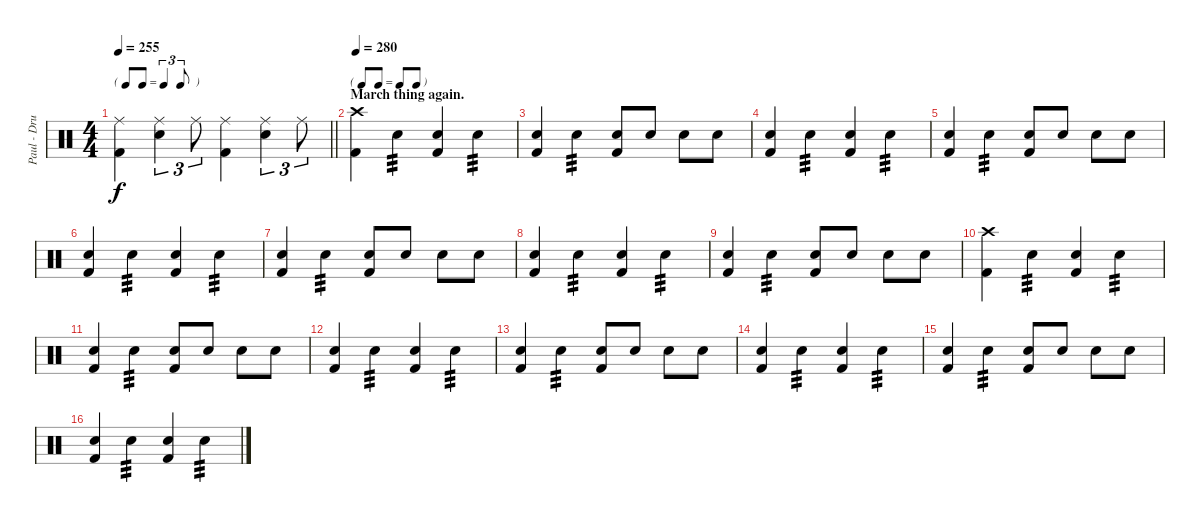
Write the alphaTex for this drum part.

\track ("Paul - Drums" "Paul - Dru") {instrument percussion}
\staff {score}
\articulation defaults
\ts (4 4)
\tf triplet8th
\tempo 255
\clef neutral
\barLineRight lightlight
\ks c
("Ride (middle)" "Kick (hit) 2").4{dy f} ("Ride (middle)" "Electric Snare (hit)").4{tu (3 2)} "Ride (middle)".8{tu (3 2)} ("Ride (middle)" "Kick (hit) 2").4 ("Ride (middle)" "Electric Snare (hit)").4{tu (3 2)} "Ride (middle)".8{tu (3 2)} |
\tf none
\section ("" "March thing again.")
\tempo 280
("Crash high (hit)" "Kick (hit) 2").4 "Electric Snare (hit)".4{tp 3} ("Electric Snare (hit)" "Kick (hit) 2").4 "Electric Snare (hit)".4{tp 3} |
("Electric Snare (hit)" "Kick (hit) 2").4 "Electric Snare (hit)".4{tp 3} ("Electric Snare (hit)" "Kick (hit) 2").8 "Electric Snare (hit)".8 "Electric Snare (hit)".8 "Electric Snare (hit)".8 |
("Electric Snare (hit)" "Kick (hit) 2").4 "Electric Snare (hit)".4{tp 3} ("Electric Snare (hit)" "Kick (hit) 2").4 "Electric Snare (hit)".4{tp 3} |
("Electric Snare (hit)" "Kick (hit) 2").4 "Electric Snare (hit)".4{tp 3} ("Electric Snare (hit)" "Kick (hit) 2").8 "Electric Snare (hit)".8 "Electric Snare (hit)".8 "Electric Snare (hit)".8 |
("Electric Snare (hit)" "Kick (hit) 2").4 "Electric Snare (hit)".4{tp 3} ("Electric Snare (hit)" "Kick (hit) 2").4 "Electric Snare (hit)".4{tp 3} |
("Electric Snare (hit)" "Kick (hit) 2").4 "Electric Snare (hit)".4{tp 3} ("Electric Snare (hit)" "Kick (hit) 2").8 "Electric Snare (hit)".8 "Electric Snare (hit)".8 "Electric Snare (hit)".8 |
("Electric Snare (hit)" "Kick (hit) 2").4 "Electric Snare (hit)".4{tp 3} ("Electric Snare (hit)" "Kick (hit) 2").4 "Electric Snare (hit)".4{tp 3} |
("Electric Snare (hit)" "Kick (hit) 2").4 "Electric Snare (hit)".4{tp 3} ("Electric Snare (hit)" "Kick (hit) 2").8 "Electric Snare (hit)".8 "Electric Snare (hit)".8 "Electric Snare (hit)".8 |
("Crash high (hit)" "Kick (hit) 2").4 "Electric Snare (hit)".4{tp 3} ("Electric Snare (hit)" "Kick (hit) 2").4 "Electric Snare (hit)".4{tp 3} |
("Electric Snare (hit)" "Kick (hit) 2").4 "Electric Snare (hit)".4{tp 3} ("Electric Snare (hit)" "Kick (hit) 2").8 "Electric Snare (hit)".8 "Electric Snare (hit)".8 "Electric Snare (hit)".8 |
("Electric Snare (hit)" "Kick (hit) 2").4 "Electric Snare (hit)".4{tp 3} ("Electric Snare (hit)" "Kick (hit) 2").4 "Electric Snare (hit)".4{tp 3} |
("Electric Snare (hit)" "Kick (hit) 2").4 "Electric Snare (hit)".4{tp 3} ("Electric Snare (hit)" "Kick (hit) 2").8 "Electric Snare (hit)".8 "Electric Snare (hit)".8 "Electric Snare (hit)".8 |
("Electric Snare (hit)" "Kick (hit) 2").4 "Electric Snare (hit)".4{tp 3} ("Electric Snare (hit)" "Kick (hit) 2").4 "Electric Snare (hit)".4{tp 3} |
("Electric Snare (hit)" "Kick (hit) 2").4 "Electric Snare (hit)".4{tp 3} ("Electric Snare (hit)" "Kick (hit) 2").8 "Electric Snare (hit)".8 "Electric Snare (hit)".8 "Electric Snare (hit)".8 |
("Electric Snare (hit)" "Kick (hit) 2").4 "Electric Snare (hit)".4{tp 3} ("Electric Snare (hit)" "Kick (hit) 2").4 "Electric Snare (hit)".4{tp 3}
